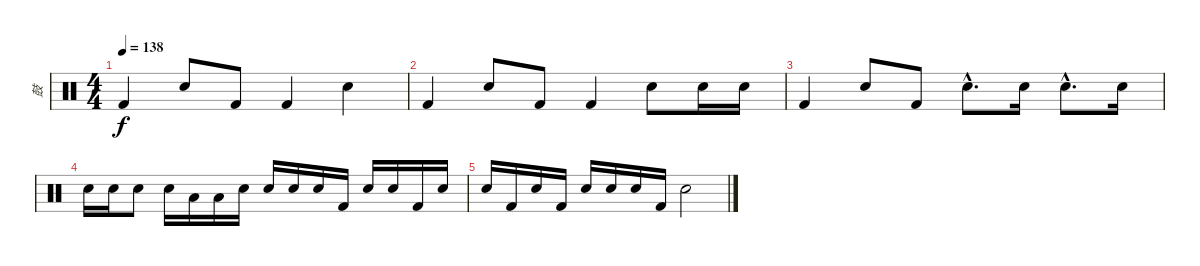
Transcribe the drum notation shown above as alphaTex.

\track ("鼓" "鼓") {instrument percussion}
\staff {score}
\articulation defaults
\ts (4 4)
\tempo 138
\clef neutral
\ks c "Kick (hit) 2".4{dy f} "Snare (hit) 2".8 "Kick (hit) 2".8 "Kick (hit) 2".4 "Snare (hit) 2".4
|
"Kick (hit) 2".4 "Snare (hit) 2".8 "Kick (hit) 2".8 "Kick (hit) 2".4 "Snare (hit) 2".8 "Snare (hit) 2".16 "Snare (hit) 2".16 |
"Kick (hit) 2".4 "Snare (hit) 2".8 "Kick (hit) 2".8 "Snare (hit) 2"{hac}.8{d} "Snare (hit) 2".16 "Snare (hit) 2"{hac}.8{d} "Snare (hit) 2".16 |
"Snare (hit) 2".16 "Snare (hit) 2".16 "Snare (hit) 2".8 "Snare (hit) 2".16 "Low Tom (hit)".16 "Low Tom (hit)".16 "Snare (hit) 2".16 "Snare (hit) 2".16 "Snare (hit) 2".16 "Snare (hit) 2".16 "Kick (hit) 2".16 "Snare (hit) 2".16 "Snare (hit) 2".16 "Kick (hit) 2".16 "Snare (hit) 2".16 |
"Snare (hit) 2".16 "Kick (hit) 2".16 "Snare (hit) 2".16 "Kick (hit) 2".16 "Snare (hit) 2".16 "Snare (hit) 2".16 "Snare (hit) 2".16 "Kick (hit) 2".16 "Snare (hit) 2".2
